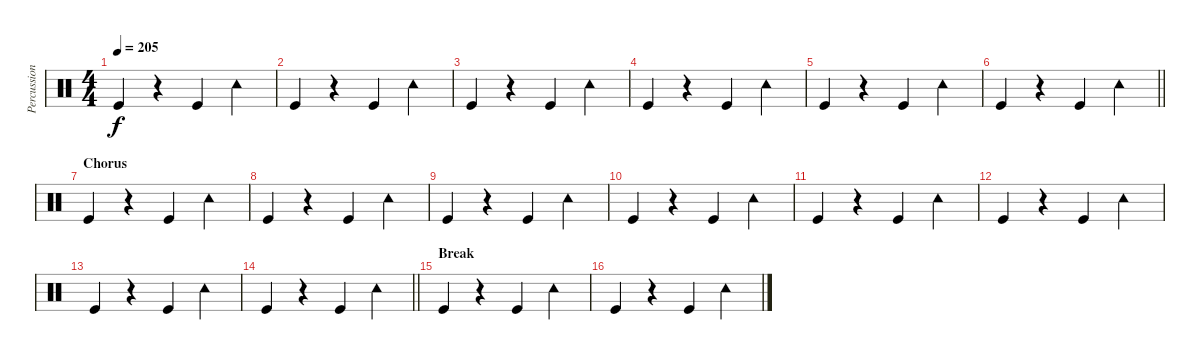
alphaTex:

\track ("Percussion" "Percussion") {instrument percussion}
\staff {score}
\articulation defaults
\ts (4 4)
\tempo 205
\clef neutral
\ks c "Kick (hit)".4{dy f}
r.4 "Kick (hit)".4 "Tambourine (hit)".4 |
"Kick (hit)".4 r.4 "Kick (hit)".4 "Tambourine (hit)".4 |
"Kick (hit)".4 r.4 "Kick (hit)".4 "Tambourine (hit)".4 |
"Kick (hit)".4 r.4 "Kick (hit)".4 "Tambourine (hit)".4 |
"Kick (hit)".4 r.4 "Kick (hit)".4 "Tambourine (hit)".4 |
\barLineRight lightlight "Kick (hit)".4
r.4 "Kick (hit)".4 "Tambourine (hit)".4 |
\section ("" "Chorus")
"Kick (hit)".4 r.4 "Kick (hit)".4 "Tambourine (hit)".4 |
"Kick (hit)".4 r.4 "Kick (hit)".4 "Tambourine (hit)".4 |
"Kick (hit)".4 r.4 "Kick (hit)".4 "Tambourine (hit)".4 |
"Kick (hit)".4 r.4 "Kick (hit)".4 "Tambourine (hit)".4 |
"Kick (hit)".4 r.4 "Kick (hit)".4 "Tambourine (hit)".4 |
"Kick (hit)".4 r.4 "Kick (hit)".4 "Tambourine (hit)".4 |
"Kick (hit)".4 r.4 "Kick (hit)".4 "Tambourine (hit)".4 |
\barLineRight lightlight "Kick (hit)".4
r.4 "Kick (hit)".4 "Tambourine (hit)".4 |
\section ("" "Break")
"Kick (hit)".4 r.4 "Kick (hit)".4 "Tambourine (hit)".4 |
"Kick (hit)".4 r.4 "Kick (hit)".4 "Tambourine (hit)".4
